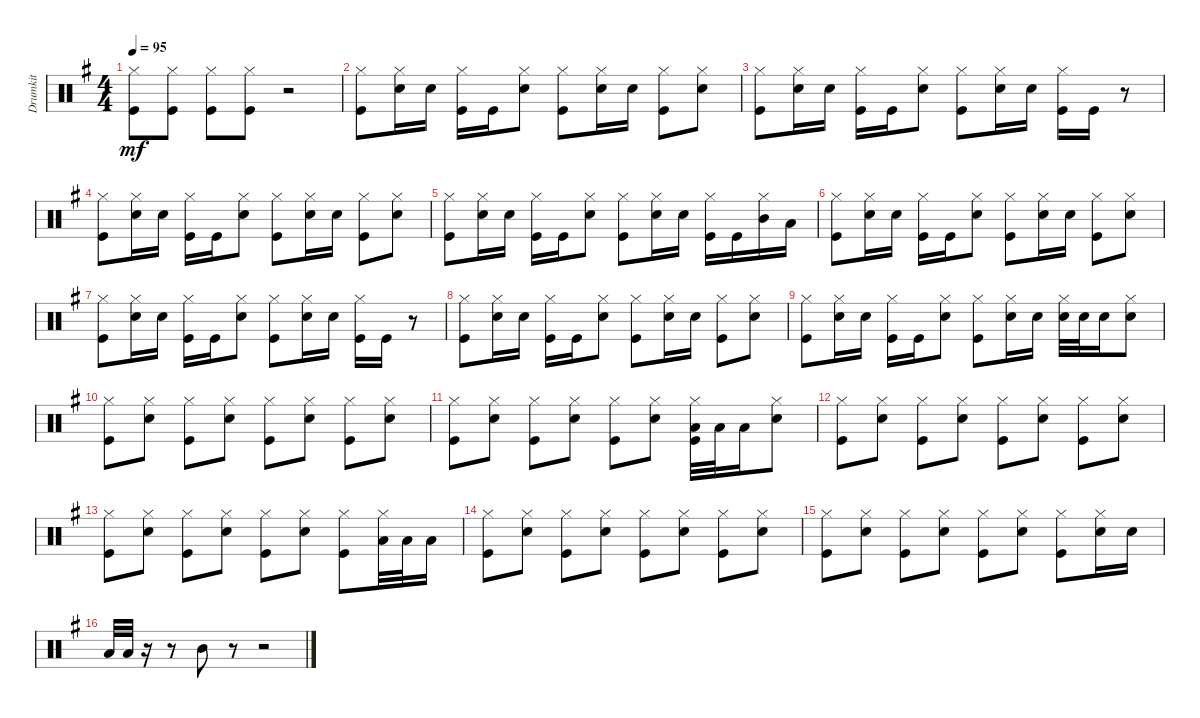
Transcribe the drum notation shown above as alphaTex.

\track ("Drumkit" "Drumkit") {solo instrument percussion}
\staff {score}
\articulation defaults
\ts (4 4)
\tempo 95
\clef neutral
\ks g
("Kick (hit)" "Hi-Hat (closed)").8{dy mf} ("Kick (hit)" "Hi-Hat (closed)").8 ("Kick (hit)" "Hi-Hat (closed)").8 ("Kick (hit)" "Hi-Hat (closed)").8 r.2 |
("Kick (hit)" "Hi-Hat (closed)").8 ("Snare (hit) 2" "Hi-Hat (closed)").16 "Snare (hit) 2".16 ("Kick (hit)" "Hi-Hat (closed)").16 "Kick (hit)".16 ("Snare (hit) 2" "Hi-Hat (closed)").8 ("Kick (hit)" "Hi-Hat (closed)").8 ("Snare (hit) 2" "Hi-Hat (closed)").16 "Snare (hit) 2".16 ("Kick (hit)" "Hi-Hat (closed)").8 ("Snare (hit) 2" "Hi-Hat (closed)").8 |
("Kick (hit)" "Hi-Hat (closed)").8 ("Snare (hit) 2" "Hi-Hat (closed)").16 "Snare (hit) 2".16 ("Kick (hit)" "Hi-Hat (closed)").16 "Kick (hit)".16 ("Snare (hit) 2" "Hi-Hat (closed)").8 ("Kick (hit)" "Hi-Hat (closed)").8 ("Snare (hit) 2" "Hi-Hat (closed)").16 "Snare (hit) 2".16 ("Kick (hit)" "Hi-Hat (closed)").16 "Kick (hit)".16 r.8 |
("Kick (hit)" "Hi-Hat (closed)").8 ("Snare (hit) 2" "Hi-Hat (closed)").16 "Snare (hit) 2".16 ("Kick (hit)" "Hi-Hat (closed)").16 "Kick (hit)".16 ("Snare (hit) 2" "Hi-Hat (closed)").8 ("Kick (hit)" "Hi-Hat (closed)").8 ("Snare (hit) 2" "Hi-Hat (closed)").16 "Snare (hit) 2".16 ("Kick (hit)" "Hi-Hat (closed)").8 ("Snare (hit) 2" "Hi-Hat (closed)").8 |
("Kick (hit)" "Hi-Hat (closed)").8 ("Snare (hit) 2" "Hi-Hat (closed)").16 "Snare (hit) 2".16 ("Kick (hit)" "Hi-Hat (closed)").16 "Kick (hit)".16 ("Snare (hit) 2" "Hi-Hat (closed)").8 ("Kick (hit)" "Hi-Hat (closed)").8 ("Snare (hit) 2" "Hi-Hat (closed)").16 "Snare (hit) 2".16 ("Kick (hit)" "Hi-Hat (closed)").16 "Kick (hit)".16 ("Mid Tom (hit)" "Hi-Hat (closed)").16 "Low Tom (hit)".16 |
("Kick (hit)" "Hi-Hat (closed)").8 ("Snare (hit) 2" "Hi-Hat (closed)").16 "Snare (hit) 2".16 ("Kick (hit)" "Hi-Hat (closed)").16 "Kick (hit)".16 ("Snare (hit) 2" "Hi-Hat (closed)").8 ("Kick (hit)" "Hi-Hat (closed)").8 ("Snare (hit) 2" "Hi-Hat (closed)").16 "Snare (hit) 2".16 ("Kick (hit)" "Hi-Hat (closed)").8 ("Snare (hit) 2" "Hi-Hat (closed)").8 |
("Kick (hit)" "Hi-Hat (closed)").8 ("Snare (hit) 2" "Hi-Hat (closed)").16 "Snare (hit) 2".16 ("Kick (hit)" "Hi-Hat (closed)").16 "Kick (hit)".16 ("Snare (hit) 2" "Hi-Hat (closed)").8 ("Kick (hit)" "Hi-Hat (closed)").8 ("Snare (hit) 2" "Hi-Hat (closed)").16 "Snare (hit) 2".16 ("Kick (hit)" "Hi-Hat (closed)").16 "Kick (hit)".16 r.8 |
("Kick (hit)" "Hi-Hat (closed)").8 ("Snare (hit) 2" "Hi-Hat (closed)").16 "Snare (hit) 2".16 ("Kick (hit)" "Hi-Hat (closed)").16 "Kick (hit)".16 ("Snare (hit) 2" "Hi-Hat (closed)").8 ("Kick (hit)" "Hi-Hat (closed)").8 ("Snare (hit) 2" "Hi-Hat (closed)").16 "Snare (hit) 2".16 ("Kick (hit)" "Hi-Hat (closed)").8 ("Snare (hit) 2" "Hi-Hat (closed)").8 |
("Kick (hit)" "Hi-Hat (closed)").8 ("Snare (hit) 2" "Hi-Hat (closed)").16 "Snare (hit) 2".16 ("Kick (hit)" "Hi-Hat (closed)").16 "Kick (hit)".16 ("Snare (hit) 2" "Hi-Hat (closed)").8 ("Kick (hit)" "Hi-Hat (closed)").8 ("Snare (hit) 2" "Hi-Hat (closed)").16 "Snare (hit) 2".16 ("Hi-Hat (closed)" "Snare (hit) 2").32 "Snare (hit) 2".32 "Snare (hit) 2".16 ("Snare (hit) 2" "Hi-Hat (closed)").8 |
("Kick (hit)" "Hi-Hat (closed)").8 ("Snare (hit) 2" "Hi-Hat (closed)").8 ("Kick (hit)" "Hi-Hat (closed)").8 ("Snare (hit) 2" "Hi-Hat (closed)").8 ("Kick (hit)" "Hi-Hat (closed)").8 ("Snare (hit) 2" "Hi-Hat (closed)").8 ("Kick (hit)" "Hi-Hat (closed)").8 ("Snare (hit) 2" "Hi-Hat (closed)").8 |
("Kick (hit)" "Hi-Hat (closed)").8 ("Snare (hit) 2" "Hi-Hat (closed)").8 ("Kick (hit)" "Hi-Hat (closed)").8 ("Snare (hit) 2" "Hi-Hat (closed)").8 ("Kick (hit)" "Hi-Hat (closed)").8 ("Snare (hit) 2" "Hi-Hat (closed)").8 ("Kick (hit)" "Hi-Hat (closed)" "Low Tom (hit)").32 "Low Tom (hit)".32 "Low Tom (hit)".16 ("Snare (hit) 2" "Hi-Hat (closed)").8 |
("Kick (hit)" "Hi-Hat (closed)").8 ("Snare (hit) 2" "Hi-Hat (closed)").8 ("Kick (hit)" "Hi-Hat (closed)").8 ("Snare (hit) 2" "Hi-Hat (closed)").8 ("Kick (hit)" "Hi-Hat (closed)").8 ("Snare (hit) 2" "Hi-Hat (closed)").8 ("Kick (hit)" "Hi-Hat (closed)").8 ("Snare (hit) 2" "Hi-Hat (closed)").8 |
("Kick (hit)" "Hi-Hat (closed)").8 ("Snare (hit) 2" "Hi-Hat (closed)").8 ("Kick (hit)" "Hi-Hat (closed)").8 ("Snare (hit) 2" "Hi-Hat (closed)").8 ("Kick (hit)" "Hi-Hat (closed)").8 ("Snare (hit) 2" "Hi-Hat (closed)").8 ("Kick (hit)" "Hi-Hat (closed)").8 ("Hi-Hat (closed)" "Low Tom (hit)").32 "Low Tom (hit)".32 "Low Tom (hit)".16 |
("Kick (hit)" "Hi-Hat (closed)").8 ("Snare (hit) 2" "Hi-Hat (closed)").8 ("Kick (hit)" "Hi-Hat (closed)").8 ("Snare (hit) 2" "Hi-Hat (closed)").8 ("Kick (hit)" "Hi-Hat (closed)").8 ("Snare (hit) 2" "Hi-Hat (closed)").8 ("Kick (hit)" "Hi-Hat (closed)").8 ("Snare (hit) 2" "Hi-Hat (closed)").8 |
("Kick (hit)" "Hi-Hat (closed)").8 ("Snare (hit) 2" "Hi-Hat (closed)").8 ("Kick (hit)" "Hi-Hat (closed)").8 ("Snare (hit) 2" "Hi-Hat (closed)").8 ("Kick (hit)" "Hi-Hat (closed)").8 ("Snare (hit) 2" "Hi-Hat (closed)").8 ("Kick (hit)" "Hi-Hat (closed)").8 ("Snare (hit) 2" "Hi-Hat (closed)").16 "Snare (hit) 2".16 |
"Low Tom (hit)".32 "Low Tom (hit)".32 r.16 r.8 "Mid Tom (hit)".8 r.8 r.2
